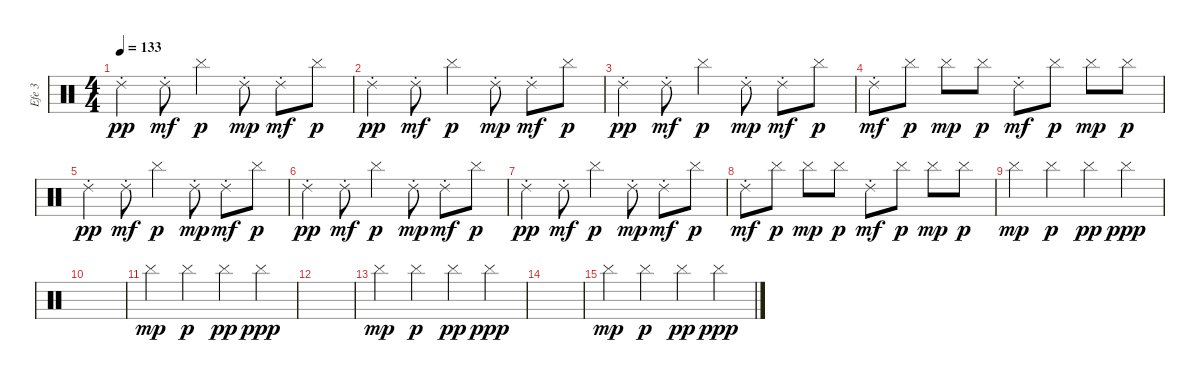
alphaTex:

\track ("Efe 3" "Efe 3") {instrument percussion}
\staff {score}
\articulation defaults
\ts (4 4)
\tempo 133
\clef neutral
\ks c "Ride (choke) 2".4{dy pp} "Ride (choke) 2".8{dy mf} "Cymbal (hit)".4{dy p} "Ride (choke) 2".8{dy mp} "Ride (choke) 2".8{dy mf} "Cymbal (hit)".8{dy p}
|
"Ride (choke) 2".4{dy pp} "Ride (choke) 2".8{dy mf} "Cymbal (hit)".4{dy p} "Ride (choke) 2".8{dy mp} "Ride (choke) 2".8{dy mf} "Cymbal (hit)".8{dy p} |
"Ride (choke) 2".4{dy pp} "Ride (choke) 2".8{dy mf} "Cymbal (hit)".4{dy p} "Ride (choke) 2".8{dy mp} "Ride (choke) 2".8{dy mf} "Cymbal (hit)".8{dy p} |
"Ride (choke) 2".8{dy mf} "Cymbal (hit)".8{dy p} "Cymbal (hit)".8{dy mp} "Cymbal (hit)".8{dy p} "Ride (choke) 2".8{dy mf} "Cymbal (hit)".8{dy p} "Cymbal (hit)".8{dy mp} "Cymbal (hit)".8{dy p} |
"Ride (choke) 2".4{dy pp} "Ride (choke) 2".8{dy mf} "Cymbal (hit)".4{dy p} "Ride (choke) 2".8{dy mp} "Ride (choke) 2".8{dy mf} "Cymbal (hit)".8{dy p} |
"Ride (choke) 2".4{dy pp} "Ride (choke) 2".8{dy mf} "Cymbal (hit)".4{dy p} "Ride (choke) 2".8{dy mp} "Ride (choke) 2".8{dy mf} "Cymbal (hit)".8{dy p} |
"Ride (choke) 2".4{dy pp} "Ride (choke) 2".8{dy mf} "Cymbal (hit)".4{dy p} "Ride (choke) 2".8{dy mp} "Ride (choke) 2".8{dy mf} "Cymbal (hit)".8{dy p} |
"Ride (choke) 2".8{dy mf} "Cymbal (hit)".8{dy p} "Cymbal (hit)".8{dy mp} "Cymbal (hit)".8{dy p} "Ride (choke) 2".8{dy mf} "Cymbal (hit)".8{dy p} "Cymbal (hit)".8{dy mp} "Cymbal (hit)".8{dy p} |
"Cymbal (hit)".4{dy mp} "Cymbal (hit)".4{dy p} "Cymbal (hit)".4{dy pp} "Cymbal (hit)".4{dy ppp} |
|
"Cymbal (hit)".4{dy mp} "Cymbal (hit)".4{dy p} "Cymbal (hit)".4{dy pp} "Cymbal (hit)".4{dy ppp} |
|
"Cymbal (hit)".4{dy mp} "Cymbal (hit)".4{dy p} "Cymbal (hit)".4{dy pp} "Cymbal (hit)".4{dy ppp} |
|
"Cymbal (hit)".4{dy mp} "Cymbal (hit)".4{dy p} "Cymbal (hit)".4{dy pp} "Cymbal (hit)".4{dy ppp}
